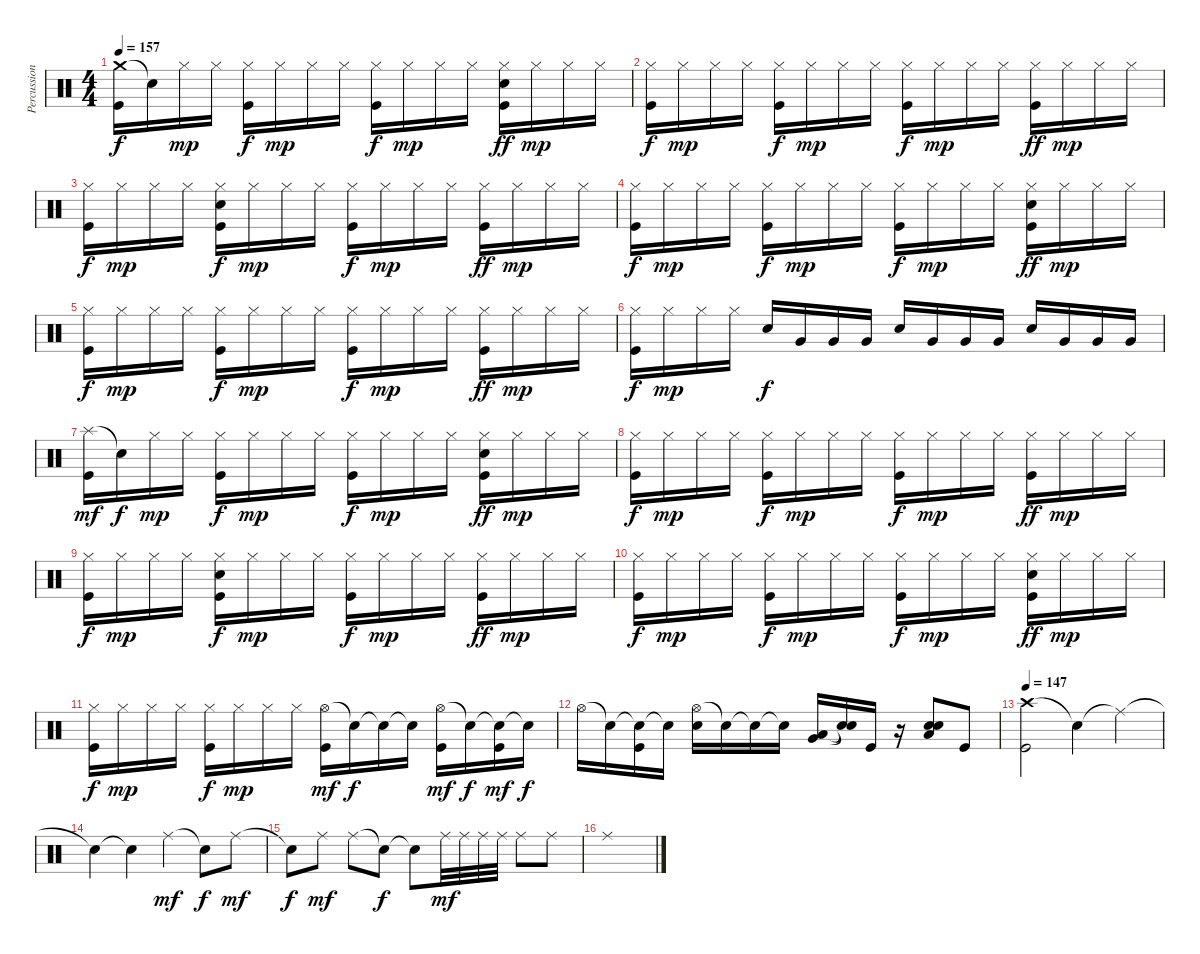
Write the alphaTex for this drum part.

\track ("Percussion" "Percussion") {instrument percussion}
\staff {score}
\articulation defaults
\ts (4 4)
\tempo 157
\clef neutral
\ks c
("Crash medium (hit)" "Kick (hit)").16{dy f} "Snare (hit)"{t}.16 "Hi-Hat (closed)".16{dy mp} "Hi-Hat (closed)".16 ("Hi-Hat (closed)" "Kick (hit)").16{dy f} "Hi-Hat (closed)".16{dy mp} "Hi-Hat (closed)".16 "Hi-Hat (closed)".16 ("Hi-Hat (closed)" "Kick (hit)").16{dy f} "Hi-Hat (closed)".16{dy mp} "Hi-Hat (closed)".16 "Hi-Hat (closed)".16 ("Hi-Hat (closed)" "Electric Snare (hit)" "Kick (hit)").16{dy ff} "Hi-Hat (closed)".16{dy mp} "Hi-Hat (closed)".16 "Hi-Hat (closed)".16 |
("Hi-Hat (closed)" "Kick (hit)").16{dy f} "Hi-Hat (closed)".16{dy mp} "Hi-Hat (closed)".16 "Hi-Hat (closed)".16 ("Hi-Hat (closed)" "Kick (hit)").16{dy f} "Hi-Hat (closed)".16{dy mp} "Hi-Hat (closed)".16 "Hi-Hat (closed)".16 ("Hi-Hat (closed)" "Kick (hit)").16{dy f} "Hi-Hat (closed)".16{dy mp} "Hi-Hat (closed)".16 "Hi-Hat (closed)".16 ("Hi-Hat (closed)" "Kick (hit)").16{dy ff} "Hi-Hat (closed)".16{dy mp} "Hi-Hat (closed)".16 "Hi-Hat (closed)".16 |
("Hi-Hat (closed)" "Kick (hit)").16{dy f} "Hi-Hat (closed)".16{dy mp} "Hi-Hat (closed)".16 "Hi-Hat (closed)".16 ("Hi-Hat (closed)" "Electric Snare (hit)" "Kick (hit)").16{dy f} "Hi-Hat (closed)".16{dy mp} "Hi-Hat (closed)".16 "Hi-Hat (closed)".16 ("Hi-Hat (closed)" "Kick (hit)").16{dy f} "Hi-Hat (closed)".16{dy mp} "Hi-Hat (closed)".16 "Hi-Hat (closed)".16 ("Hi-Hat (closed)" "Kick (hit)").16{dy ff} "Hi-Hat (closed)".16{dy mp} "Hi-Hat (closed)".16 "Hi-Hat (closed)".16 |
("Hi-Hat (closed)" "Kick (hit)").16{dy f} "Hi-Hat (closed)".16{dy mp} "Hi-Hat (closed)".16 "Hi-Hat (closed)".16 ("Hi-Hat (closed)" "Kick (hit)").16{dy f} "Hi-Hat (closed)".16{dy mp} "Hi-Hat (closed)".16 "Hi-Hat (closed)".16 ("Hi-Hat (closed)" "Kick (hit)").16{dy f} "Hi-Hat (closed)".16{dy mp} "Hi-Hat (closed)".16 "Hi-Hat (closed)".16 ("Hi-Hat (closed)" "Electric Snare (hit)" "Kick (hit)").16{dy ff} "Hi-Hat (closed)".16{dy mp} "Hi-Hat (closed)".16 "Hi-Hat (closed)".16 |
("Hi-Hat (closed)" "Kick (hit)").16{dy f} "Hi-Hat (closed)".16{dy mp} "Hi-Hat (closed)".16 "Hi-Hat (closed)".16 ("Hi-Hat (closed)" "Kick (hit)").16{dy f} "Hi-Hat (closed)".16{dy mp} "Hi-Hat (closed)".16 "Hi-Hat (closed)".16 ("Hi-Hat (closed)" "Kick (hit)").16{dy f} "Hi-Hat (closed)".16{dy mp} "Hi-Hat (closed)".16 "Hi-Hat (closed)".16 ("Hi-Hat (closed)" "Kick (hit)").16{dy ff} "Hi-Hat (closed)".16{dy mp} "Hi-Hat (closed)".16 "Hi-Hat (closed)".16 |
("Hi-Hat (closed)" "Kick (hit)").16{dy f} "Hi-Hat (closed)".16{dy mp} "Hi-Hat (closed)".16 "Hi-Hat (closed)".16 "Electric Snare (hit)".16{dy f} "Very Low Tom (hit)".16 "Very Low Tom (hit)".16 "Very Low Tom (hit)".16 "Electric Snare (hit)".16 "Very Low Tom (hit)".16 "Very Low Tom (hit)".16 "Very Low Tom (hit)".16 "Electric Snare (hit)".16 "Very Low Tom (hit)".16 "Very Low Tom (hit)".16 "Very Low Tom (hit)".16 |
("Splash (hit)" "Kick (hit)").16{dy mf} "Snare (hit)"{t}.16{dy f} "Hi-Hat (closed)".16{dy mp} "Hi-Hat (closed)".16 ("Hi-Hat (closed)" "Kick (hit)").16{dy f} "Hi-Hat (closed)".16{dy mp} "Hi-Hat (closed)".16 "Hi-Hat (closed)".16 ("Hi-Hat (closed)" "Kick (hit)").16{dy f} "Hi-Hat (closed)".16{dy mp} "Hi-Hat (closed)".16 "Hi-Hat (closed)".16 ("Hi-Hat (closed)" "Electric Snare (hit)" "Kick (hit)").16{dy ff} "Hi-Hat (closed)".16{dy mp} "Hi-Hat (closed)".16 "Hi-Hat (closed)".16 |
("Hi-Hat (closed)" "Kick (hit)").16{dy f} "Hi-Hat (closed)".16{dy mp} "Hi-Hat (closed)".16 "Hi-Hat (closed)".16 ("Hi-Hat (closed)" "Kick (hit)").16{dy f} "Hi-Hat (closed)".16{dy mp} "Hi-Hat (closed)".16 "Hi-Hat (closed)".16 ("Hi-Hat (closed)" "Kick (hit)").16{dy f} "Hi-Hat (closed)".16{dy mp} "Hi-Hat (closed)".16 "Hi-Hat (closed)".16 ("Hi-Hat (closed)" "Kick (hit)").16{dy ff} "Hi-Hat (closed)".16{dy mp} "Hi-Hat (closed)".16 "Hi-Hat (closed)".16 |
("Hi-Hat (closed)" "Kick (hit)").16{dy f} "Hi-Hat (closed)".16{dy mp} "Hi-Hat (closed)".16 "Hi-Hat (closed)".16 ("Hi-Hat (closed)" "Electric Snare (hit)" "Kick (hit)").16{dy f} "Hi-Hat (closed)".16{dy mp} "Hi-Hat (closed)".16 "Hi-Hat (closed)".16 ("Hi-Hat (closed)" "Kick (hit)").16{dy f} "Hi-Hat (closed)".16{dy mp} "Hi-Hat (closed)".16 "Hi-Hat (closed)".16 ("Hi-Hat (closed)" "Kick (hit)").16{dy ff} "Hi-Hat (closed)".16{dy mp} "Hi-Hat (closed)".16 "Hi-Hat (closed)".16 |
("Hi-Hat (closed)" "Kick (hit)").16{dy f} "Hi-Hat (closed)".16{dy mp} "Hi-Hat (closed)".16 "Hi-Hat (closed)".16 ("Hi-Hat (closed)" "Kick (hit)").16{dy f} "Hi-Hat (closed)".16{dy mp} "Hi-Hat (closed)".16 "Hi-Hat (closed)".16 ("Hi-Hat (closed)" "Kick (hit)").16{dy f} "Hi-Hat (closed)".16{dy mp} "Hi-Hat (closed)".16 "Hi-Hat (closed)".16 ("Hi-Hat (closed)" "Electric Snare (hit)" "Kick (hit)").16{dy ff} "Hi-Hat (closed)".16{dy mp} "Hi-Hat (closed)".16 "Hi-Hat (closed)".16 |
("Hi-Hat (closed)" "Kick (hit)").16{dy f} "Hi-Hat (closed)".16{dy mp} "Hi-Hat (closed)".16 "Hi-Hat (closed)".16 ("Hi-Hat (closed)" "Kick (hit)").16{dy f} "Hi-Hat (closed)".16{dy mp} "Hi-Hat (closed)".16 "Hi-Hat (closed)".16 ("Hi-Hat (open)" "Kick (hit)").16{dy mf} "Snare (hit)"{t}.16{dy f} "Snare (hit)"{t}.16 "Snare (hit)"{t}.16 ("Hi-Hat (open)" "Kick (hit)").16{dy mf} "Snare (hit)"{t}.16{dy f} ("Snare (hit)"{t} "Kick (hit)").16{dy mf} "Snare (hit)"{t}.16{dy f} |
"Hi-Hat (open)".16 "Snare (hit)"{t}.16 ("Snare (hit)"{t} "Kick (hit)").16 "Snare (hit)"{t}.16 ("Hi-Hat (open)" "Electric Snare (hit)").16 "Snare (hit)"{t}.16 "Snare (hit)"{t}.16 "Snare (hit)"{t}.16 ("Low Floor Tom (hit)" "Very Low Tom (hit)").16 ("Snare (hit)"{t} "Snare (hit)"{t}).16 "Kick (hit)".16 r.16 ("Low Floor Tom (hit)" "Electric Snare (hit)" "Electric Snare (hit)").8 "Kick (hit)".8 |
\tempo 147
("Crash high (hit)" "Kick (hit)").2 "Snare (hit)"{t}.4 "Ride (middle)"{t}.4 |
"Snare (hit)"{t}.4 "Snare (hit)"{t}.4 "Ride (middle)".4{dy mf} "Snare (hit)"{t}.8{dy f} "Ride (middle)".8{dy mf} |
"Snare (hit)"{t}.8{dy f} "Ride (middle)".8{dy mf} "Ride (middle)".8 "Snare (hit)"{t}.8{dy f} "Snare (hit)"{t}.8 "Ride (middle)".32{dy mf} "Ride (middle)".32 "Ride (middle)".32 "Ride (middle)".32 "Ride (middle)".8 "Ride (middle)".8 |
"Ride (middle)".1
